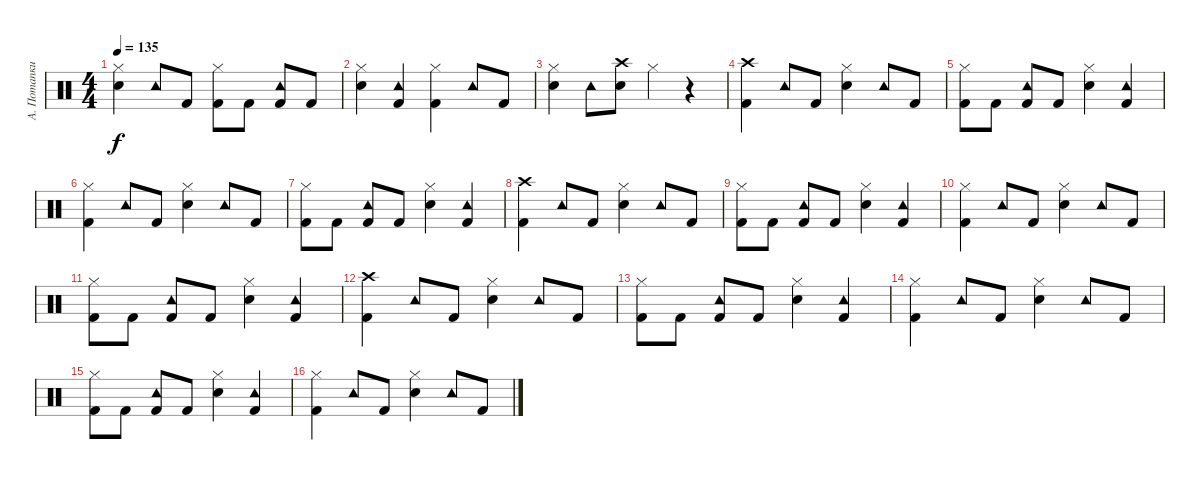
\track ("А. Потапкин" "А. Потапки") {instrument percussion}
\staff {score}
\articulation defaults
\ts (4 4)
\tempo 135
\clef neutral
\ks c
("Hi-Hat (closed)" "Snare (hit) 2").4{dy f} "Tambourine (hit)".8 "Kick (hit) 2".8 ("Hi-Hat (closed)" "Kick (hit) 2").8 "Kick (hit) 2".8 ("Tambourine (hit)" "Kick (hit) 2").8 "Kick (hit) 2".8 |
("Hi-Hat (closed)" "Snare (hit) 2").4 ("Tambourine (hit)" "Kick (hit) 2").4 ("Hi-Hat (closed)" "Kick (hit) 2").4 "Tambourine (hit)".8 "Kick (hit) 2".8 |
("Hi-Hat (closed)" "Snare (hit) 2").4 "Tambourine (hit)".8 ("Crash high (hit)" "Snare (hit) 2").8 "Hi-Hat (closed)".4 r.4 |
("Crash high (hit)" "Kick (hit) 2").4 "Tambourine (hit)".8 "Kick (hit) 2".8 ("Hi-Hat (closed)" "Snare (hit) 2").4 "Tambourine (hit)".8 "Kick (hit) 2".8 |
("Hi-Hat (closed)" "Kick (hit) 2").8 "Kick (hit) 2".8 ("Tambourine (hit)" "Kick (hit) 2").8 "Kick (hit) 2".8 ("Hi-Hat (closed)" "Snare (hit) 2").4 ("Tambourine (hit)" "Kick (hit) 2").4 |
("Hi-Hat (closed)" "Kick (hit) 2").4 "Tambourine (hit)".8 "Kick (hit) 2".8 ("Hi-Hat (closed)" "Snare (hit) 2").4 "Tambourine (hit)".8 "Kick (hit) 2".8 |
("Hi-Hat (closed)" "Kick (hit) 2").8 "Kick (hit) 2".8 ("Tambourine (hit)" "Kick (hit) 2").8 "Kick (hit) 2".8 ("Hi-Hat (closed)" "Snare (hit) 2").4 ("Tambourine (hit)" "Kick (hit) 2").4 |
("Crash high (hit)" "Kick (hit) 2").4 "Tambourine (hit)".8 "Kick (hit) 2".8 ("Hi-Hat (closed)" "Snare (hit) 2").4 "Tambourine (hit)".8 "Kick (hit) 2".8 |
("Hi-Hat (closed)" "Kick (hit) 2").8 "Kick (hit) 2".8 ("Tambourine (hit)" "Kick (hit) 2").8 "Kick (hit) 2".8 ("Hi-Hat (closed)" "Snare (hit) 2").4 ("Tambourine (hit)" "Kick (hit) 2").4 |
("Hi-Hat (closed)" "Kick (hit) 2").4 "Tambourine (hit)".8 "Kick (hit) 2".8 ("Hi-Hat (closed)" "Snare (hit) 2").4 "Tambourine (hit)".8 "Kick (hit) 2".8 |
("Hi-Hat (closed)" "Kick (hit) 2").8 "Kick (hit) 2".8 ("Tambourine (hit)" "Kick (hit) 2").8 "Kick (hit) 2".8 ("Hi-Hat (closed)" "Snare (hit) 2").4 ("Tambourine (hit)" "Kick (hit) 2").4 |
("Crash high (hit)" "Kick (hit) 2").4 "Tambourine (hit)".8 "Kick (hit) 2".8 ("Hi-Hat (closed)" "Snare (hit) 2").4 "Tambourine (hit)".8 "Kick (hit) 2".8 |
("Hi-Hat (closed)" "Kick (hit) 2").8 "Kick (hit) 2".8 ("Tambourine (hit)" "Kick (hit) 2").8 "Kick (hit) 2".8 ("Hi-Hat (closed)" "Snare (hit) 2").4 ("Tambourine (hit)" "Kick (hit) 2").4 |
("Hi-Hat (closed)" "Kick (hit) 2").4 "Tambourine (hit)".8 "Kick (hit) 2".8 ("Hi-Hat (closed)" "Snare (hit) 2").4 "Tambourine (hit)".8 "Kick (hit) 2".8 |
("Hi-Hat (closed)" "Kick (hit) 2").8 "Kick (hit) 2".8 ("Tambourine (hit)" "Kick (hit) 2").8 "Kick (hit) 2".8 ("Hi-Hat (closed)" "Snare (hit) 2").4 ("Tambourine (hit)" "Kick (hit) 2").4 |
("Hi-Hat (closed)" "Kick (hit) 2").4 "Tambourine (hit)".8 "Kick (hit) 2".8 ("Hi-Hat (closed)" "Snare (hit) 2").4 "Tambourine (hit)".8 "Kick (hit) 2".8
